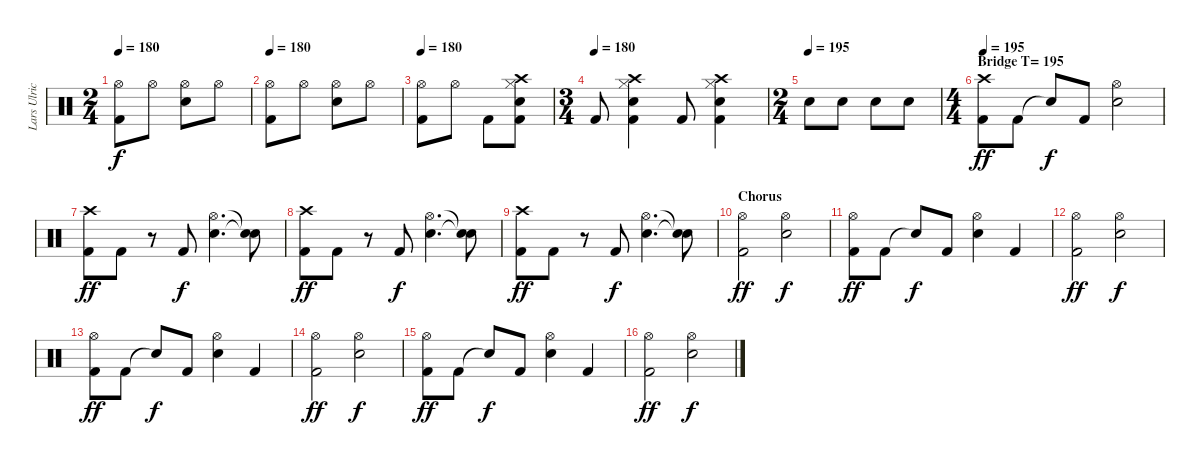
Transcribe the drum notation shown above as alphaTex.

\track ("Lars Ulrich" "Lars Ulric") {instrument percussion}
\staff {score}
\articulation defaults
\ts (2 4)
\tempo 180
\clef neutral
\ks c
("Kick (hit) 2" "Hi-Hat (open)").8{dy f} "Hi-Hat (open)".8 ("Snare (hit) 2" "Hi-Hat (open)").8 "Hi-Hat (open)".8 |
\tempo 180
("Kick (hit) 2" "Hi-Hat (open)").8 "Hi-Hat (open)".8 ("Snare (hit) 2" "Hi-Hat (open)").8 "Hi-Hat (open)".8 |
\tempo 180
("Kick (hit) 2" "Hi-Hat (open)").8 "Hi-Hat (open)".8 "Kick (hit) 2".8 ("Kick (hit) 2" "Snare (hit) 2" "Hi-Hat (closed)" "Crash high (hit)").8 |
\ts (3 4)
\tempo (180)
"Kick (hit) 2".8 ("Kick (hit) 2" "Snare (hit) 2" "Hi-Hat (closed)" "Crash high (hit)").4 "Kick (hit) 2".8 ("Kick (hit) 2" "Snare (hit) 2" "Hi-Hat (closed)" "Crash high (hit)").4 |
\ts (2 4)
\tempo (195)
"Snare (hit) 2".8 "Snare (hit) 2".8 "Snare (hit) 2".8 "Snare (hit) 2".8 |
\ts (4 4)
\section ("" "Bridge T= 195 ")
\tempo 195
("Kick (hit) 2" "Crash high (hit)").8{dy ff} "Kick (hit) 2".8 "Snare (hit)"{t}.8{dy f} "Kick (hit) 2".8 ("Snare (hit) 2" "Hi-Hat (open)").2 |
("Kick (hit) 2" "Crash high (hit)").8{dy ff} "Kick (hit) 2".8 r.8 "Kick (hit) 2".8{dy f} ("Snare (hit) 2" "Hi-Hat (open)").4{d} ("Snare (hit)"{t} "Snare (hit)"{t}).8 |
("Kick (hit) 2" "Crash high (hit)").8{dy ff} "Kick (hit) 2".8 r.8 "Kick (hit) 2".8{dy f} ("Snare (hit) 2" "Hi-Hat (open)").4{d} ("Snare (hit)"{t} "Snare (hit)"{t}).8 |
("Kick (hit) 2" "Crash high (hit)").8{dy ff} "Kick (hit) 2".8 r.8 "Kick (hit) 2".8{dy f} ("Snare (hit) 2" "Hi-Hat (open)").4{d} ("Snare (hit)"{t} "Snare (hit)"{t}).8 |
\section ("" "Chorus")
("Kick (hit) 2" "Hi-Hat (open)").2{dy ff} ("Snare (hit) 2" "Hi-Hat (open)").2{dy f} |
("Kick (hit) 2" "Hi-Hat (open)").8{dy ff} "Kick (hit) 2".8 "Snare (hit)"{t}.8{dy f} "Kick (hit) 2".8 ("Snare (hit) 2" "Hi-Hat (open)").4 "Kick (hit) 2".4 |
("Kick (hit) 2" "Hi-Hat (open)").2{dy ff} ("Snare (hit) 2" "Hi-Hat (open)").2{dy f} |
("Kick (hit) 2" "Hi-Hat (open)").8{dy ff} "Kick (hit) 2".8 "Snare (hit)"{t}.8{dy f} "Kick (hit) 2".8 ("Snare (hit) 2" "Hi-Hat (open)").4 "Kick (hit) 2".4 |
("Kick (hit) 2" "Hi-Hat (open)").2{dy ff} ("Snare (hit) 2" "Hi-Hat (open)").2{dy f} |
("Kick (hit) 2" "Hi-Hat (open)").8{dy ff} "Kick (hit) 2".8 "Snare (hit)"{t}.8{dy f} "Kick (hit) 2".8 ("Snare (hit) 2" "Hi-Hat (open)").4 "Kick (hit) 2".4 |
("Kick (hit) 2" "Hi-Hat (open)").2{dy ff} ("Snare (hit) 2" "Hi-Hat (open)").2{dy f}
